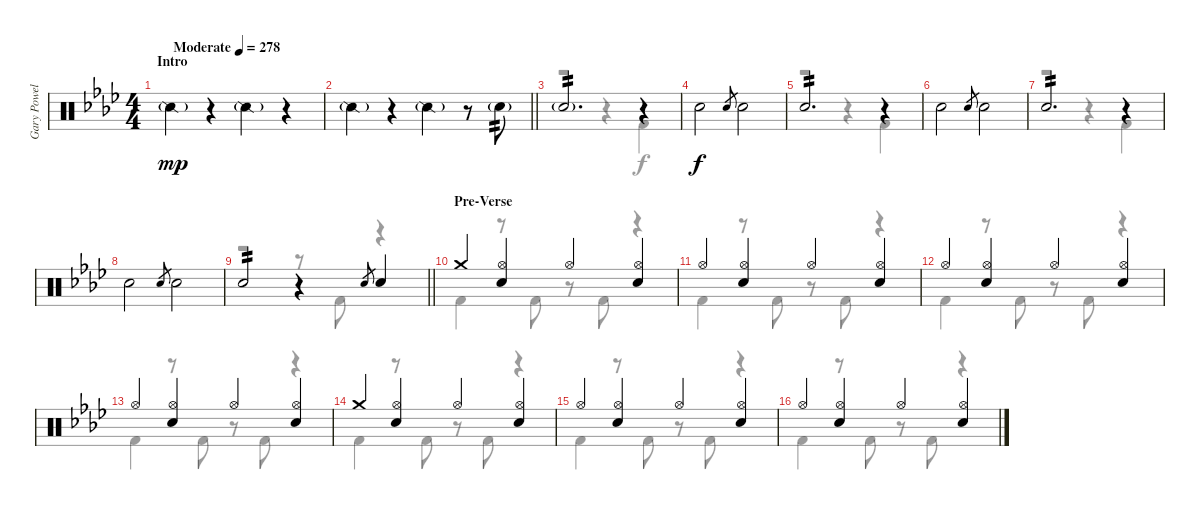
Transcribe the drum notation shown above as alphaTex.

\track ("Gary Powell" "Gary Powel") {instrument percussion}
\staff {score}
\articulation defaults
\voice
\ts (4 4)
\section ("" "Intro")
\tempo (278 "Moderate")
\clef neutral
\ks ab "Snare (side stick) 2"{g}.4{dy mp}
r.4 "Snare (side stick) 2"{g}.4 r.4 |
\barLineRight lightlight "Snare (side stick) 2"{g}.4
r.4 "Snare (side stick) 2"{g}.4 r.8 "Electric Snare (hit)"{g}.8{tp 2} |
"Electric Snare (hit)"{g}.2{d tp 2} r.4 |
"Electric Snare (hit)".2{dy f} "Electric Snare (hit)".8{gr} "Electric Snare (hit)".2 |
"Electric Snare (hit)".2{d tp 2} r.4 |
"Electric Snare (hit)".2 "Electric Snare (hit)".8{gr} "Electric Snare (hit)".2 |
"Electric Snare (hit)".2{d tp 2} r.4 |
"Electric Snare (hit)".2 "Electric Snare (hit)".8{gr} "Electric Snare (hit)".2 |
\barLineRight lightlight "Electric Snare (hit)".2{tp 2}
r.4 "Electric Snare (hit)".8{gr} "Electric Snare (hit)".4 |
\section ("" "Pre-Verse")
"Crash medium (hit)".4 ("Hi-Hat (open)" "Electric Snare (hit)").4 "Hi-Hat (open)".4 ("Hi-Hat (open)" "Electric Snare (hit)").4 |
"Hi-Hat (open)".4 ("Hi-Hat (open)" "Electric Snare (hit)").4 "Hi-Hat (open)".4 ("Hi-Hat (open)" "Electric Snare (hit)").4 |
"Hi-Hat (open)".4 ("Hi-Hat (open)" "Electric Snare (hit)").4 "Hi-Hat (open)".4 ("Hi-Hat (open)" "Electric Snare (hit)").4 |
"Hi-Hat (open)".4 ("Hi-Hat (open)" "Electric Snare (hit)").4 "Hi-Hat (open)".4 ("Hi-Hat (open)" "Electric Snare (hit)").4 |
"Crash medium (hit)".4 ("Hi-Hat (open)" "Electric Snare (hit)").4 "Hi-Hat (open)".4 ("Hi-Hat (open)" "Electric Snare (hit)").4 |
"Hi-Hat (open)".4 ("Hi-Hat (open)" "Electric Snare (hit)").4 "Hi-Hat (open)".4 ("Hi-Hat (open)" "Electric Snare (hit)").4 |
"Hi-Hat (open)".4 ("Hi-Hat (open)" "Electric Snare (hit)").4 "Hi-Hat (open)".4 ("Hi-Hat (open)" "Electric Snare (hit)").4
\voice
\clef neutral
\ottava regular
\simile none
\ks ab
|
\barLineRight lightlight
|
r.2 r.4 "Kick (hit) 2".4 |
|
r.2 r.4 "Kick (hit) 2".4 |
|
r.2 r.4 "Kick (hit) 2".4 |
|
\barLineRight lightlight
r.2 r.8 "Kick (hit) 2".8 r.4 |
"Kick (hit) 2".4 r.8 "Kick (hit) 2".8 r.8 "Kick (hit) 2".8 r.4 |
"Kick (hit) 2".4 r.8 "Kick (hit) 2".8 r.8 "Kick (hit) 2".8 r.4 |
"Kick (hit) 2".4 r.8 "Kick (hit) 2".8 r.8 "Kick (hit) 2".8 r.4 |
"Kick (hit) 2".4 r.8 "Kick (hit) 2".8 r.8 "Kick (hit) 2".8 r.4 |
"Kick (hit) 2".4 r.8 "Kick (hit) 2".8 r.8 "Kick (hit) 2".8 r.4 |
"Kick (hit) 2".4 r.8 "Kick (hit) 2".8 r.8 "Kick (hit) 2".8 r.4 |
"Kick (hit) 2".4 r.8 "Kick (hit) 2".8 r.8 "Kick (hit) 2".8 r.4
